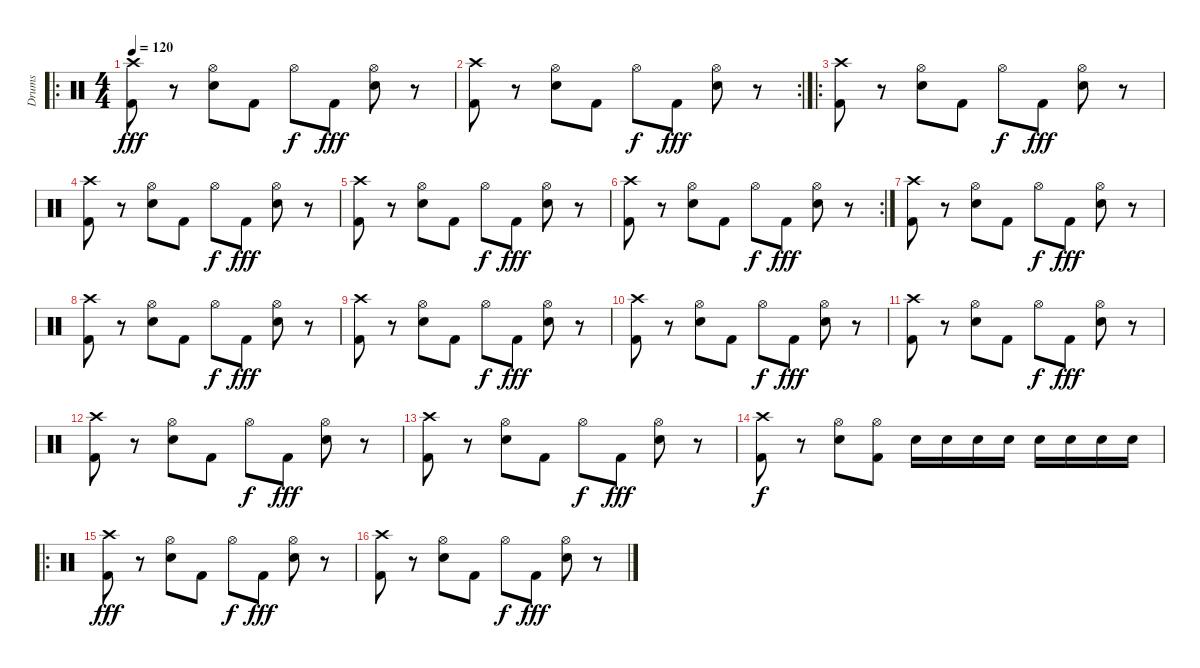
\track ("Drums" "Drums") {instrument percussion}
\staff {score}
\articulation defaults
\ro
\ts (4 4)
\tempo 120
\clef neutral
\ks c
("Crash high (hit)" "Kick (hit) 2").8{dy fff} r.8 ("Hi-Hat (open)" "Snare (hit) 2").8 "Kick (hit) 2".8 "Hi-Hat (open)".8{dy f} "Kick (hit) 2".8{dy fff} ("Hi-Hat (open)" "Snare (hit) 2").8 r.8 |
\rc 2
("Crash high (hit)" "Kick (hit) 2").8 r.8 ("Hi-Hat (open)" "Snare (hit) 2").8 "Kick (hit) 2".8 "Hi-Hat (open)".8{dy f} "Kick (hit) 2".8{dy fff} ("Hi-Hat (open)" "Snare (hit) 2").8 r.8 |
\ro
("Crash high (hit)" "Kick (hit) 2").8 r.8 ("Hi-Hat (open)" "Snare (hit) 2").8 "Kick (hit) 2".8 "Hi-Hat (open)".8{dy f} "Kick (hit) 2".8{dy fff} ("Hi-Hat (open)" "Snare (hit) 2").8 r.8 |
("Crash high (hit)" "Kick (hit) 2").8 r.8 ("Hi-Hat (open)" "Snare (hit) 2").8 "Kick (hit) 2".8 "Hi-Hat (open)".8{dy f} "Kick (hit) 2".8{dy fff} ("Hi-Hat (open)" "Snare (hit) 2").8 r.8 |
("Crash high (hit)" "Kick (hit) 2").8 r.8 ("Hi-Hat (open)" "Snare (hit) 2").8 "Kick (hit) 2".8 "Hi-Hat (open)".8{dy f} "Kick (hit) 2".8{dy fff} ("Hi-Hat (open)" "Snare (hit) 2").8 r.8 |
\rc 2
("Crash high (hit)" "Kick (hit) 2").8 r.8 ("Hi-Hat (open)" "Snare (hit) 2").8 "Kick (hit) 2".8 "Hi-Hat (open)".8{dy f} "Kick (hit) 2".8{dy fff} ("Hi-Hat (open)" "Snare (hit) 2").8 r.8 |
("Crash high (hit)" "Kick (hit) 2").8 r.8 ("Hi-Hat (open)" "Snare (hit) 2").8 "Kick (hit) 2".8 "Hi-Hat (open)".8{dy f} "Kick (hit) 2".8{dy fff} ("Hi-Hat (open)" "Snare (hit) 2").8 r.8 |
("Crash high (hit)" "Kick (hit) 2").8 r.8 ("Hi-Hat (open)" "Snare (hit) 2").8 "Kick (hit) 2".8 "Hi-Hat (open)".8{dy f} "Kick (hit) 2".8{dy fff} ("Hi-Hat (open)" "Snare (hit) 2").8 r.8 |
("Crash high (hit)" "Kick (hit) 2").8 r.8 ("Hi-Hat (open)" "Snare (hit) 2").8 "Kick (hit) 2".8 "Hi-Hat (open)".8{dy f} "Kick (hit) 2".8{dy fff} ("Hi-Hat (open)" "Snare (hit) 2").8 r.8 |
("Crash high (hit)" "Kick (hit) 2").8 r.8 ("Hi-Hat (open)" "Snare (hit) 2").8 "Kick (hit) 2".8 "Hi-Hat (open)".8{dy f} "Kick (hit) 2".8{dy fff} ("Hi-Hat (open)" "Snare (hit) 2").8 r.8 |
("Crash high (hit)" "Kick (hit) 2").8 r.8 ("Hi-Hat (open)" "Snare (hit) 2").8 "Kick (hit) 2".8 "Hi-Hat (open)".8{dy f} "Kick (hit) 2".8{dy fff} ("Hi-Hat (open)" "Snare (hit) 2").8 r.8 |
("Crash high (hit)" "Kick (hit) 2").8 r.8 ("Hi-Hat (open)" "Snare (hit) 2").8 "Kick (hit) 2".8 "Hi-Hat (open)".8{dy f} "Kick (hit) 2".8{dy fff} ("Hi-Hat (open)" "Snare (hit) 2").8 r.8 |
("Crash high (hit)" "Kick (hit) 2").8 r.8 ("Hi-Hat (open)" "Snare (hit) 2").8 "Kick (hit) 2".8 "Hi-Hat (open)".8{dy f} "Kick (hit) 2".8{dy fff} ("Hi-Hat (open)" "Snare (hit) 2").8 r.8 |
("Crash high (hit)" "Kick (hit) 2").8{dy f} r.8 ("Hi-Hat (open)" "Snare (hit) 2").8 ("Hi-Hat (open)" "Kick (hit) 2").8 "Snare (hit) 2".16 "Snare (hit) 2".16 "Snare (hit) 2".16 "Snare (hit) 2".16 "Snare (hit) 2".16 "Snare (hit) 2".16 "Snare (hit) 2".16 "Snare (hit) 2".16 |
\ro
("Crash high (hit)" "Kick (hit) 2").8{dy fff} r.8 ("Hi-Hat (open)" "Snare (hit) 2").8 "Kick (hit) 2".8 "Hi-Hat (open)".8{dy f} "Kick (hit) 2".8{dy fff} ("Hi-Hat (open)" "Snare (hit) 2").8 r.8 |
("Crash high (hit)" "Kick (hit) 2").8 r.8 ("Hi-Hat (open)" "Snare (hit) 2").8 "Kick (hit) 2".8 "Hi-Hat (open)".8{dy f} "Kick (hit) 2".8{dy fff} ("Hi-Hat (open)" "Snare (hit) 2").8 r.8
